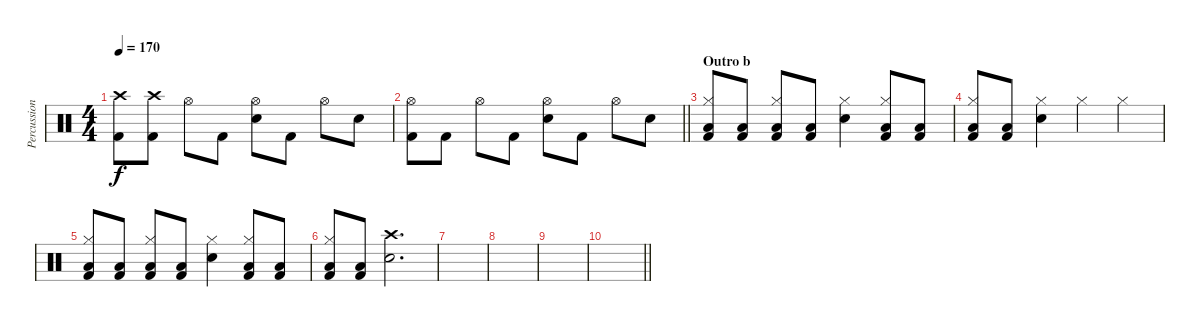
\track ("Percussion" "Percussion") {instrument percussion}
\staff {score}
\articulation defaults
\ts (4 4)
\tempo 170
\clef neutral
\ks c
("Crash high (hit)" "Kick (hit) 2").8{dy f} ("Crash high (hit)" "Kick (hit) 2").8 "Hi-Hat (open)".8 "Kick (hit) 2".8 ("Hi-Hat (open)" "Electric Snare (hit)").8 "Kick (hit) 2".8 "Hi-Hat (open)".8 "Electric Snare (hit)".8 |
\barLineRight lightlight
("Hi-Hat (open)" "Kick (hit) 2").8 "Kick (hit) 2".8 "Hi-Hat (open)".8 "Kick (hit) 2".8 ("Hi-Hat (open)" "Electric Snare (hit)").8 "Kick (hit) 2".8 "Hi-Hat (open)".8 "Electric Snare (hit)".8 |
\section ("" "Outro b")
("Hi-Hat (closed)" "Low Floor Tom (hit)" "Kick (hit) 2").8 ("Low Floor Tom (hit)" "Kick (hit) 2").8 ("Hi-Hat (closed)" "Low Floor Tom (hit)" "Kick (hit) 2").8 ("Low Floor Tom (hit)" "Kick (hit) 2").8 ("Hi-Hat (closed)" "Electric Snare (hit)").4 ("Hi-Hat (closed)" "Low Floor Tom (hit)" "Kick (hit) 2").8 ("Low Floor Tom (hit)" "Kick (hit) 2").8 |
("Hi-Hat (closed)" "Low Floor Tom (hit)" "Kick (hit) 2").8 ("Low Floor Tom (hit)" "Kick (hit) 2").8 ("Hi-Hat (closed)" "Electric Snare (hit)").4 "Hi-Hat (closed)".4 "Hi-Hat (closed)".4 |
("Hi-Hat (closed)" "Low Floor Tom (hit)" "Kick (hit) 2").8 ("Low Floor Tom (hit)" "Kick (hit) 2").8 ("Hi-Hat (closed)" "Low Floor Tom (hit)" "Kick (hit) 2").8 ("Low Floor Tom (hit)" "Kick (hit) 2").8 ("Hi-Hat (closed)" "Electric Snare (hit)").4 ("Hi-Hat (closed)" "Low Floor Tom (hit)" "Kick (hit) 2").8 ("Low Floor Tom (hit)" "Kick (hit) 2").8 |
("Hi-Hat (closed)" "Low Floor Tom (hit)" "Kick (hit) 2").8 ("Low Floor Tom (hit)" "Kick (hit) 2").8 ("Crash high (hit)" "Electric Snare (hit)").2{d} |
|
|
|
\barLineRight lightlight
